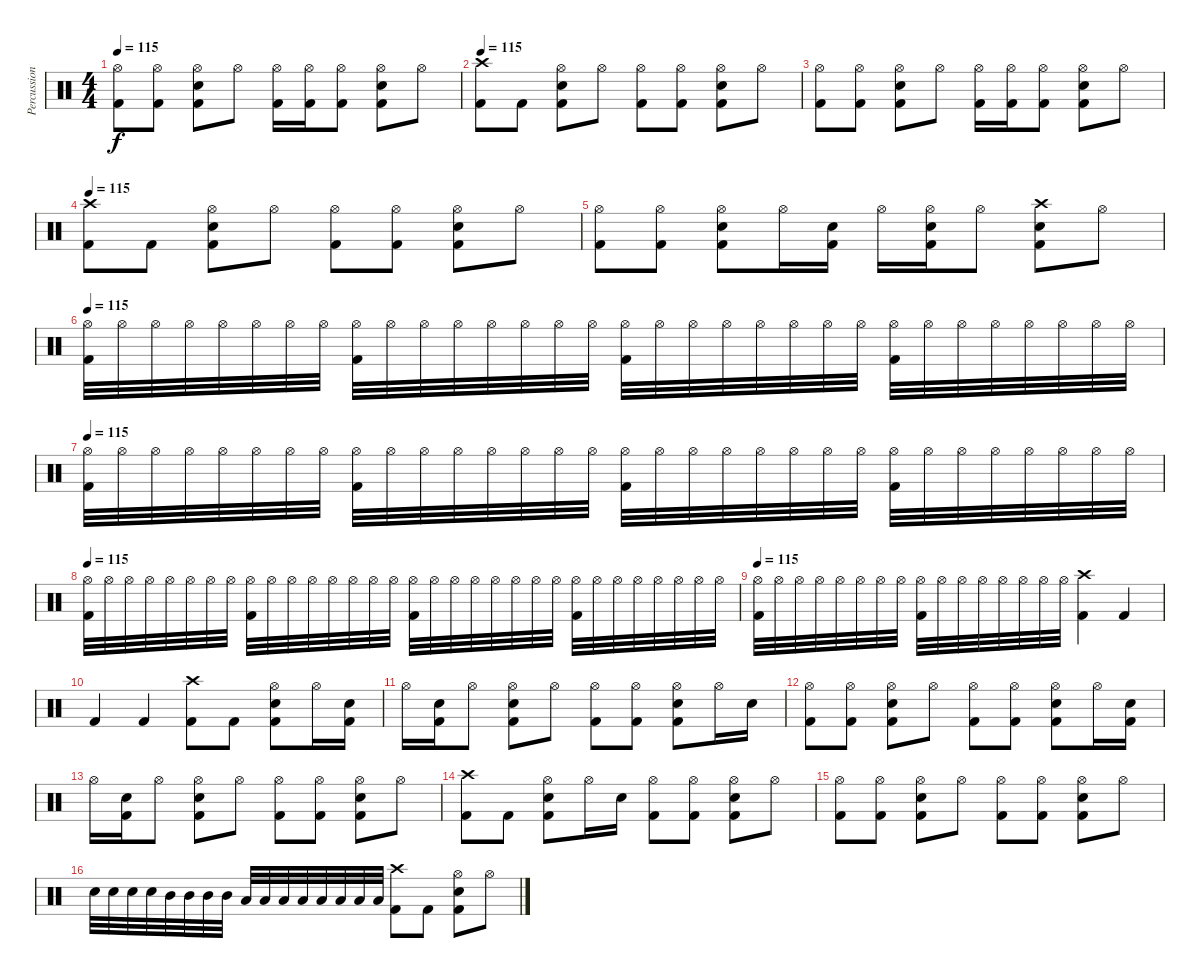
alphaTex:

\track ("Percussion" "Percussion") {instrument percussion}
\staff {score}
\articulation defaults
\ts (4 4)
\tempo 115
\clef neutral
\ks c
("Hi-Hat (open)" "Kick (hit) 2").8{dy f} ("Hi-Hat (open)" "Kick (hit) 2").8 ("Hi-Hat (open)" "Kick (hit) 2" "Snare (hit) 2").8 "Hi-Hat (open)".8 ("Hi-Hat (open)" "Kick (hit) 2").16 ("Hi-Hat (open)" "Kick (hit) 2").16 ("Hi-Hat (open)" "Kick (hit) 2").8 ("Hi-Hat (open)" "Kick (hit) 2" "Snare (hit) 2").8 "Hi-Hat (open)".8 |
\tempo 115
("Crash high (hit)" "Kick (hit) 2").8 "Kick (hit) 2".8 ("Hi-Hat (open)" "Kick (hit) 2" "Snare (hit) 2").8 "Hi-Hat (open)".8 ("Hi-Hat (open)" "Kick (hit) 2").8 ("Hi-Hat (open)" "Kick (hit) 2").8 ("Hi-Hat (open)" "Kick (hit) 2" "Snare (hit) 2").8 "Hi-Hat (open)".8 |
("Hi-Hat (open)" "Kick (hit) 2").8 ("Hi-Hat (open)" "Kick (hit) 2").8 ("Hi-Hat (open)" "Kick (hit) 2" "Snare (hit) 2").8 "Hi-Hat (open)".8 ("Hi-Hat (open)" "Kick (hit) 2").16 ("Hi-Hat (open)" "Kick (hit) 2").16 ("Hi-Hat (open)" "Kick (hit) 2").8 ("Hi-Hat (open)" "Kick (hit) 2" "Snare (hit) 2").8 "Hi-Hat (open)".8 |
\tempo 115
("Crash high (hit)" "Kick (hit) 2").8 "Kick (hit) 2".8 ("Hi-Hat (open)" "Kick (hit) 2" "Snare (hit) 2").8 "Hi-Hat (open)".8 ("Hi-Hat (open)" "Kick (hit) 2").8 ("Hi-Hat (open)" "Kick (hit) 2").8 ("Hi-Hat (open)" "Kick (hit) 2" "Snare (hit) 2").8 "Hi-Hat (open)".8 |
("Hi-Hat (open)" "Kick (hit) 2").8 ("Hi-Hat (open)" "Kick (hit) 2").8 ("Hi-Hat (open)" "Kick (hit) 2" "Snare (hit) 2").8 "Hi-Hat (open)".16 ("Kick (hit) 2" "Snare (hit) 2").16 "Hi-Hat (open)".16 ("Hi-Hat (open)" "Kick (hit) 2" "Snare (hit) 2").16 "Hi-Hat (open)".8 ("Crash high (hit)" "Kick (hit) 2" "Snare (hit) 2").8 "Hi-Hat (open)".8 |
\tempo 115
("Hi-Hat (open)" "Kick (hit) 2").32 "Hi-Hat (open)".32 "Hi-Hat (open)".32 "Hi-Hat (open)".32 "Hi-Hat (open)".32 "Hi-Hat (open)".32 "Hi-Hat (open)".32 "Hi-Hat (open)".32 ("Hi-Hat (open)" "Kick (hit) 2").32 "Hi-Hat (open)".32 "Hi-Hat (open)".32 "Hi-Hat (open)".32 "Hi-Hat (open)".32 "Hi-Hat (open)".32 "Hi-Hat (open)".32 "Hi-Hat (open)".32 ("Hi-Hat (open)" "Kick (hit) 2").32 "Hi-Hat (open)".32 "Hi-Hat (open)".32 "Hi-Hat (open)".32 "Hi-Hat (open)".32 "Hi-Hat (open)".32 "Hi-Hat (open)".32 "Hi-Hat (open)".32 ("Hi-Hat (open)" "Kick (hit) 2").32 "Hi-Hat (open)".32 "Hi-Hat (open)".32 "Hi-Hat (open)".32 "Hi-Hat (open)".32 "Hi-Hat (open)".32 "Hi-Hat (open)".32 "Hi-Hat (open)".32 |
\tempo 115
("Hi-Hat (open)" "Kick (hit) 2").32 "Hi-Hat (open)".32 "Hi-Hat (open)".32 "Hi-Hat (open)".32 "Hi-Hat (open)".32 "Hi-Hat (open)".32 "Hi-Hat (open)".32 "Hi-Hat (open)".32 ("Hi-Hat (open)" "Kick (hit) 2").32 "Hi-Hat (open)".32 "Hi-Hat (open)".32 "Hi-Hat (open)".32 "Hi-Hat (open)".32 "Hi-Hat (open)".32 "Hi-Hat (open)".32 "Hi-Hat (open)".32 ("Hi-Hat (open)" "Kick (hit) 2").32 "Hi-Hat (open)".32 "Hi-Hat (open)".32 "Hi-Hat (open)".32 "Hi-Hat (open)".32 "Hi-Hat (open)".32 "Hi-Hat (open)".32 "Hi-Hat (open)".32 ("Hi-Hat (open)" "Kick (hit) 2").32 "Hi-Hat (open)".32 "Hi-Hat (open)".32 "Hi-Hat (open)".32 "Hi-Hat (open)".32 "Hi-Hat (open)".32 "Hi-Hat (open)".32 "Hi-Hat (open)".32 |
\tempo 115
("Hi-Hat (open)" "Kick (hit) 2").32 "Hi-Hat (open)".32 "Hi-Hat (open)".32 "Hi-Hat (open)".32 "Hi-Hat (open)".32 "Hi-Hat (open)".32 "Hi-Hat (open)".32 "Hi-Hat (open)".32 ("Hi-Hat (open)" "Kick (hit) 2").32 "Hi-Hat (open)".32 "Hi-Hat (open)".32 "Hi-Hat (open)".32 "Hi-Hat (open)".32 "Hi-Hat (open)".32 "Hi-Hat (open)".32 "Hi-Hat (open)".32 ("Hi-Hat (open)" "Kick (hit) 2").32 "Hi-Hat (open)".32 "Hi-Hat (open)".32 "Hi-Hat (open)".32 "Hi-Hat (open)".32 "Hi-Hat (open)".32 "Hi-Hat (open)".32 "Hi-Hat (open)".32 ("Hi-Hat (open)" "Kick (hit) 2").32 "Hi-Hat (open)".32 "Hi-Hat (open)".32 "Hi-Hat (open)".32 "Hi-Hat (open)".32 "Hi-Hat (open)".32 "Hi-Hat (open)".32 "Hi-Hat (open)".32 |
\tempo 115
("Hi-Hat (open)" "Kick (hit) 2").32 "Hi-Hat (open)".32 "Hi-Hat (open)".32 "Hi-Hat (open)".32 "Hi-Hat (open)".32 "Hi-Hat (open)".32 "Hi-Hat (open)".32 "Hi-Hat (open)".32 ("Hi-Hat (open)" "Kick (hit) 2").32 "Hi-Hat (open)".32 "Hi-Hat (open)".32 "Hi-Hat (open)".32 "Hi-Hat (open)".32 "Hi-Hat (open)".32 "Hi-Hat (open)".32 "Hi-Hat (open)".32 ("Crash high (hit)" "Kick (hit) 2").4 "Kick (hit) 2".4 |
"Kick (hit) 2".4 "Kick (hit) 2".4 ("Crash high (hit)" "Kick (hit) 2").8 "Kick (hit) 2".8 ("Hi-Hat (open)" "Kick (hit) 2" "Snare (hit) 2").8 "Hi-Hat (open)".16 ("Kick (hit) 2" "Snare (hit) 2").16 |
"Hi-Hat (open)".16 ("Kick (hit) 2" "Snare (hit) 2").16 "Hi-Hat (open)".8 ("Hi-Hat (open)" "Kick (hit) 2" "Snare (hit) 2").8 "Hi-Hat (open)".8 ("Hi-Hat (open)" "Kick (hit) 2").8 ("Hi-Hat (open)" "Kick (hit) 2").8 ("Hi-Hat (open)" "Kick (hit) 2" "Snare (hit) 2").8 "Hi-Hat (open)".16 "Snare (hit) 2".16 |
("Hi-Hat (open)" "Kick (hit) 2").8 ("Hi-Hat (open)" "Kick (hit) 2").8 ("Hi-Hat (open)" "Kick (hit) 2" "Snare (hit) 2").8 "Hi-Hat (open)".8 ("Hi-Hat (open)" "Kick (hit) 2").8 ("Hi-Hat (open)" "Kick (hit) 2").8 ("Hi-Hat (open)" "Kick (hit) 2" "Snare (hit) 2").8 "Hi-Hat (open)".16 ("Kick (hit) 2" "Snare (hit) 2").16 |
"Hi-Hat (open)".16 ("Kick (hit) 2" "Snare (hit) 2").16 "Hi-Hat (open)".8 ("Hi-Hat (open)" "Kick (hit) 2" "Snare (hit) 2").8 "Hi-Hat (open)".8 ("Hi-Hat (open)" "Kick (hit) 2").8 ("Hi-Hat (open)" "Kick (hit) 2").8 ("Hi-Hat (open)" "Kick (hit) 2" "Snare (hit) 2").8 "Hi-Hat (open)".8 |
("Crash high (hit)" "Kick (hit) 2").8 "Kick (hit) 2".8 ("Hi-Hat (open)" "Kick (hit) 2" "Snare (hit) 2").8 "Hi-Hat (open)".16 "Snare (hit) 2".16 ("Hi-Hat (open)" "Kick (hit) 2").8 ("Hi-Hat (open)" "Kick (hit) 2").8 ("Hi-Hat (open)" "Kick (hit) 2" "Snare (hit) 2").8 "Hi-Hat (open)".8 |
("Hi-Hat (open)" "Kick (hit) 2").8 ("Hi-Hat (open)" "Kick (hit) 2").8 ("Hi-Hat (open)" "Kick (hit) 2" "Snare (hit) 2").8 "Hi-Hat (open)".8 ("Hi-Hat (open)" "Kick (hit) 2").8 ("Hi-Hat (open)" "Kick (hit) 2").8 ("Hi-Hat (open)" "Kick (hit) 2" "Snare (hit) 2").8 "Hi-Hat (open)".8 |
"Snare (hit) 2".32 "Snare (hit) 2".32 "Snare (hit) 2".32 "Snare (hit) 2".32 "Mid Tom (hit)".32 "Mid Tom (hit)".32 "Mid Tom (hit)".32 "Mid Tom (hit)".32 "Low Tom (hit)".32 "Low Tom (hit)".32 "Low Tom (hit)".32 "Low Tom (hit)".32 "Low Floor Tom (hit)".32 "Low Floor Tom (hit)".32 "Low Floor Tom (hit)".32 "Low Floor Tom (hit)".32 ("Crash high (hit)" "Kick (hit) 2").8 "Kick (hit) 2".8 ("Hi-Hat (open)" "Kick (hit) 2" "Snare (hit) 2").8 "Hi-Hat (open)".8
